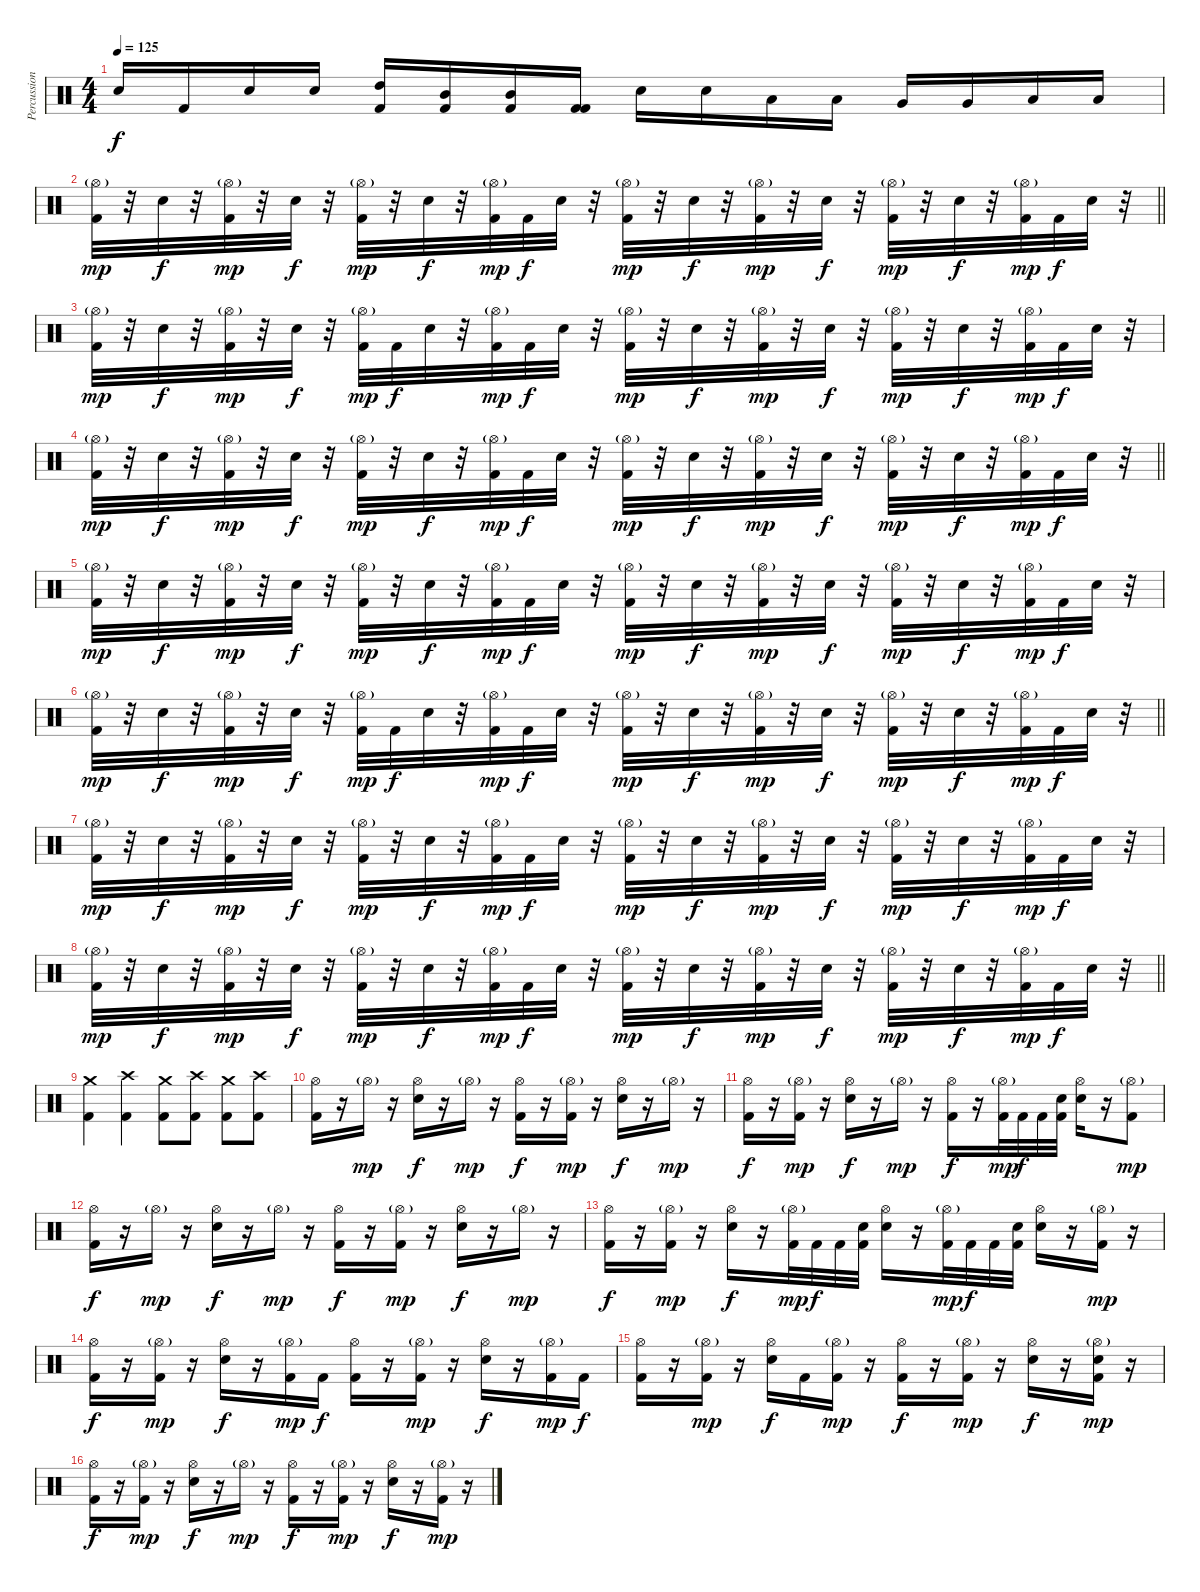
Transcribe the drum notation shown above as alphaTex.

\track ("Percussion" "Percussion") {instrument percussion}
\staff {score}
\articulation defaults
\ts (4 4)
\tempo 125
\clef neutral
\ks c "Electric Snare (hit)".16{dy f} "Kick (hit) 2".16 "Electric Snare (hit)".16 "Electric Snare (hit)".16
("High Tom (hit)" "Kick (hit) 2").16 ("Mid Tom (hit)" "Kick (hit) 2").16 ("Mid Tom (hit)" "Kick (hit) 2").16 ("Kick (hit) 2" "Kick (hit) 2").16 "Electric Snare (hit)".16 "Electric Snare (hit)".16 "Low Tom (hit)".16 "Low Tom (hit)".16 "Very Low Tom (hit)".16 "Very Low Tom (hit)".16 "Low Floor Tom (hit)".16 "Low Floor Tom (hit)".16 |
\barLineRight lightlight
("Hi-Hat (open)"{g} "Kick (hit) 2").32{dy mp} r.32 "Electric Snare (hit)".32{dy f} r.32 ("Hi-Hat (open)"{g} "Kick (hit) 2").32{dy mp} r.32 "Electric Snare (hit)".32{dy f} r.32 ("Hi-Hat (open)"{g} "Kick (hit) 2").32{dy mp} r.32 "Electric Snare (hit)".32{dy f} r.32 ("Hi-Hat (open)"{g} "Kick (hit) 2").32{dy mp} "Kick (hit) 2".32{dy f} "Electric Snare (hit)".32 r.32 ("Hi-Hat (open)"{g} "Kick (hit) 2").32{dy mp} r.32 "Electric Snare (hit)".32{dy f} r.32 ("Hi-Hat (open)"{g} "Kick (hit) 2").32{dy mp} r.32 "Electric Snare (hit)".32{dy f} r.32 ("Hi-Hat (open)"{g} "Kick (hit) 2").32{dy mp} r.32 "Electric Snare (hit)".32{dy f} r.32 ("Hi-Hat (open)"{g} "Kick (hit) 2").32{dy mp} "Kick (hit) 2".32{dy f} "Electric Snare (hit)".32 r.32 |
("Hi-Hat (open)"{g} "Kick (hit) 2").32{dy mp} r.32 "Electric Snare (hit)".32{dy f} r.32 ("Hi-Hat (open)"{g} "Kick (hit) 2").32{dy mp} r.32 "Electric Snare (hit)".32{dy f} r.32 ("Hi-Hat (open)"{g} "Kick (hit) 2").32{dy mp} "Kick (hit) 2".32{dy f} "Electric Snare (hit)".32 r.32 ("Hi-Hat (open)"{g} "Kick (hit) 2").32{dy mp} "Kick (hit) 2".32{dy f} "Electric Snare (hit)".32 r.32 ("Hi-Hat (open)"{g} "Kick (hit) 2").32{dy mp} r.32 "Electric Snare (hit)".32{dy f} r.32 ("Hi-Hat (open)"{g} "Kick (hit) 2").32{dy mp} r.32 "Electric Snare (hit)".32{dy f} r.32 ("Hi-Hat (open)"{g} "Kick (hit) 2").32{dy mp} r.32 "Electric Snare (hit)".32{dy f} r.32 ("Hi-Hat (open)"{g} "Kick (hit) 2").32{dy mp} "Kick (hit) 2".32{dy f} "Electric Snare (hit)".32 r.32 |
\barLineRight lightlight
("Hi-Hat (open)"{g} "Kick (hit) 2").32{dy mp} r.32 "Electric Snare (hit)".32{dy f} r.32 ("Hi-Hat (open)"{g} "Kick (hit) 2").32{dy mp} r.32 "Electric Snare (hit)".32{dy f} r.32 ("Hi-Hat (open)"{g} "Kick (hit) 2").32{dy mp} r.32 "Electric Snare (hit)".32{dy f} r.32 ("Hi-Hat (open)"{g} "Kick (hit) 2").32{dy mp} "Kick (hit) 2".32{dy f} "Electric Snare (hit)".32 r.32 ("Hi-Hat (open)"{g} "Kick (hit) 2").32{dy mp} r.32 "Electric Snare (hit)".32{dy f} r.32 ("Hi-Hat (open)"{g} "Kick (hit) 2").32{dy mp} r.32 "Electric Snare (hit)".32{dy f} r.32 ("Hi-Hat (open)"{g} "Kick (hit) 2").32{dy mp} r.32 "Electric Snare (hit)".32{dy f} r.32 ("Hi-Hat (open)"{g} "Kick (hit) 2").32{dy mp} "Kick (hit) 2".32{dy f} "Electric Snare (hit)".32 r.32 |
("Hi-Hat (open)"{g} "Kick (hit) 2").32{dy mp} r.32 "Electric Snare (hit)".32{dy f} r.32 ("Hi-Hat (open)"{g} "Kick (hit) 2").32{dy mp} r.32 "Electric Snare (hit)".32{dy f} r.32 ("Hi-Hat (open)"{g} "Kick (hit) 2").32{dy mp} r.32 "Electric Snare (hit)".32{dy f} r.32 ("Hi-Hat (open)"{g} "Kick (hit) 2").32{dy mp} "Kick (hit) 2".32{dy f} "Electric Snare (hit)".32 r.32 ("Hi-Hat (open)"{g} "Kick (hit) 2").32{dy mp} r.32 "Electric Snare (hit)".32{dy f} r.32 ("Hi-Hat (open)"{g} "Kick (hit) 2").32{dy mp} r.32 "Electric Snare (hit)".32{dy f} r.32 ("Hi-Hat (open)"{g} "Kick (hit) 2").32{dy mp} r.32 "Electric Snare (hit)".32{dy f} r.32 ("Hi-Hat (open)"{g} "Kick (hit) 2").32{dy mp} "Kick (hit) 2".32{dy f} "Electric Snare (hit)".32 r.32 |
\barLineRight lightlight
("Hi-Hat (open)"{g} "Kick (hit) 2").32{dy mp} r.32 "Electric Snare (hit)".32{dy f} r.32 ("Hi-Hat (open)"{g} "Kick (hit) 2").32{dy mp} r.32 "Electric Snare (hit)".32{dy f} r.32 ("Hi-Hat (open)"{g} "Kick (hit) 2").32{dy mp} "Kick (hit) 2".32{dy f} "Electric Snare (hit)".32 r.32 ("Hi-Hat (open)"{g} "Kick (hit) 2").32{dy mp} "Kick (hit) 2".32{dy f} "Electric Snare (hit)".32 r.32 ("Hi-Hat (open)"{g} "Kick (hit) 2").32{dy mp} r.32 "Electric Snare (hit)".32{dy f} r.32 ("Hi-Hat (open)"{g} "Kick (hit) 2").32{dy mp} r.32 "Electric Snare (hit)".32{dy f} r.32 ("Hi-Hat (open)"{g} "Kick (hit) 2").32{dy mp} r.32 "Electric Snare (hit)".32{dy f} r.32 ("Hi-Hat (open)"{g} "Kick (hit) 2").32{dy mp} "Kick (hit) 2".32{dy f} "Electric Snare (hit)".32 r.32 |
("Hi-Hat (open)"{g} "Kick (hit) 2").32{dy mp} r.32 "Electric Snare (hit)".32{dy f} r.32 ("Hi-Hat (open)"{g} "Kick (hit) 2").32{dy mp} r.32 "Electric Snare (hit)".32{dy f} r.32 ("Hi-Hat (open)"{g} "Kick (hit) 2").32{dy mp} r.32 "Electric Snare (hit)".32{dy f} r.32 ("Hi-Hat (open)"{g} "Kick (hit) 2").32{dy mp} "Kick (hit) 2".32{dy f} "Electric Snare (hit)".32 r.32 ("Hi-Hat (open)"{g} "Kick (hit) 2").32{dy mp} r.32 "Electric Snare (hit)".32{dy f} r.32 ("Hi-Hat (open)"{g} "Kick (hit) 2").32{dy mp} r.32 "Electric Snare (hit)".32{dy f} r.32 ("Hi-Hat (open)"{g} "Kick (hit) 2").32{dy mp} r.32 "Electric Snare (hit)".32{dy f} r.32 ("Hi-Hat (open)"{g} "Kick (hit) 2").32{dy mp} "Kick (hit) 2".32{dy f} "Electric Snare (hit)".32 r.32 |
\barLineRight lightlight
("Hi-Hat (open)"{g} "Kick (hit) 2").32{dy mp} r.32 "Electric Snare (hit)".32{dy f} r.32 ("Hi-Hat (open)"{g} "Kick (hit) 2").32{dy mp} r.32 "Electric Snare (hit)".32{dy f} r.32 ("Hi-Hat (open)"{g} "Kick (hit) 2").32{dy mp} r.32 "Electric Snare (hit)".32{dy f} r.32 ("Hi-Hat (open)"{g} "Kick (hit) 2").32{dy mp} "Kick (hit) 2".32{dy f} "Electric Snare (hit)".32 r.32 ("Hi-Hat (open)"{g} "Kick (hit) 2").32{dy mp} r.32 "Electric Snare (hit)".32{dy f} r.32 ("Hi-Hat (open)"{g} "Kick (hit) 2").32{dy mp} r.32 "Electric Snare (hit)".32{dy f} r.32 ("Hi-Hat (open)"{g} "Kick (hit) 2").32{dy mp} r.32 "Electric Snare (hit)".32{dy f} r.32 ("Hi-Hat (open)"{g} "Kick (hit) 2").32{dy mp} "Kick (hit) 2".32{dy f} "Electric Snare (hit)".32 r.32 |
("Kick (hit) 2" "Crash medium (hit)").4 ("Kick (hit) 2" "Crash high (hit)").4 ("Kick (hit) 2" "Crash medium (hit)").8 ("Kick (hit) 2" "Crash high (hit)").8 ("Kick (hit) 2" "Crash medium (hit)").8 ("Kick (hit) 2" "Crash high (hit)").8 |
("Hi-Hat (open)" "Kick (hit) 2").16 r.16 "Hi-Hat (open)"{g}.16{dy mp} r.16 ("Hi-Hat (open)" "Electric Snare (hit)").16{dy f} r.16 "Hi-Hat (open)"{g}.16{dy mp} r.16 ("Hi-Hat (open)" "Kick (hit) 2").16{dy f} r.16 ("Hi-Hat (open)"{g} "Kick (hit) 2").16{dy mp} r.16 ("Hi-Hat (open)" "Electric Snare (hit)").16{dy f} r.16 "Hi-Hat (open)"{g}.16{dy mp} r.16 |
("Hi-Hat (open)" "Kick (hit) 2").16{dy f} r.16 ("Hi-Hat (open)"{g} "Kick (hit) 2").16{dy mp} r.16 ("Hi-Hat (open)" "Electric Snare (hit)").16{dy f} r.16 "Hi-Hat (open)"{g}.16{dy mp} r.16 ("Hi-Hat (open)" "Kick (hit) 2").16{dy f} r.16 ("Hi-Hat (open)"{g} "Kick (hit) 2").32{dy mp} "Kick (hit) 2".32{dy f} "Kick (hit) 2".32 ("Snare (hit)" "Kick (hit) 2").32 ("Hi-Hat (open)" "Electric Snare (hit)").16 r.16 ("Hi-Hat (open)"{g} "Kick (hit) 2").8{dy mp} |
("Hi-Hat (open)" "Kick (hit) 2").16{dy f} r.16 "Hi-Hat (open)"{g}.16{dy mp} r.16 ("Hi-Hat (open)" "Electric Snare (hit)").16{dy f} r.16 "Hi-Hat (open)"{g}.16{dy mp} r.16 ("Hi-Hat (open)" "Kick (hit) 2").16{dy f} r.16 ("Hi-Hat (open)"{g} "Kick (hit) 2").16{dy mp} r.16 ("Hi-Hat (open)" "Electric Snare (hit)").16{dy f} r.16 "Hi-Hat (open)"{g}.16{dy mp} r.16 |
("Hi-Hat (open)" "Kick (hit) 2").16{dy f} r.16 ("Hi-Hat (open)"{g} "Kick (hit) 2").16{dy mp} r.16 ("Hi-Hat (open)" "Electric Snare (hit)").16{dy f} r.16 ("Hi-Hat (open)"{g} "Kick (hit) 2").32{dy mp} "Kick (hit) 2".32{dy f} "Kick (hit) 2".32 ("Snare (hit)" "Kick (hit) 2").32 ("Hi-Hat (open)" "Electric Snare (hit)").16 r.16 ("Hi-Hat (open)"{g} "Kick (hit) 2").32{dy mp} "Kick (hit) 2".32{dy f} "Kick (hit) 2".32 ("Snare (hit)" "Kick (hit) 2").32 ("Hi-Hat (open)" "Electric Snare (hit)").16 r.16 ("Kick (hit) 2" "Hi-Hat (open)"{g}).16{dy mp} r.16 |
("Hi-Hat (open)" "Kick (hit) 2").16{dy f} r.16 ("Hi-Hat (open)"{g} "Kick (hit) 2").16{dy mp} r.16 ("Hi-Hat (open)" "Electric Snare (hit)").16{dy f} r.16 ("Hi-Hat (open)"{g} "Kick (hit) 2").16{dy mp} "Kick (hit) 2".16{dy f} ("Hi-Hat (open)" "Kick (hit) 2").16 r.16 ("Hi-Hat (open)"{g} "Kick (hit) 2").16{dy mp} r.16 ("Hi-Hat (open)" "Electric Snare (hit)").16{dy f} r.16 ("Hi-Hat (open)"{g} "Kick (hit) 2").16{dy mp} "Kick (hit) 2".16{dy f} |
("Hi-Hat (open)" "Kick (hit) 2").16 r.16 ("Hi-Hat (open)"{g} "Kick (hit) 2").16{dy mp} r.16 ("Hi-Hat (open)" "Electric Snare (hit)").16{dy f} "Kick (hit) 2".16 ("Hi-Hat (open)"{g} "Kick (hit) 2").16{dy mp} r.16 ("Hi-Hat (open)" "Kick (hit) 2").16{dy f} r.16 ("Hi-Hat (open)"{g} "Kick (hit) 2").16{dy mp} r.16 ("Hi-Hat (open)" "Electric Snare (hit)").16{dy f} r.16 ("Hi-Hat (open)"{g} "Electric Snare (hit)" "Kick (hit) 2").16{dy mp} r.16 |
("Hi-Hat (open)" "Kick (hit) 2").16{dy f} r.16 ("Hi-Hat (open)"{g} "Kick (hit) 2").16{dy mp} r.16 ("Hi-Hat (open)" "Electric Snare (hit)").16{dy f} r.16 "Hi-Hat (open)"{g}.16{dy mp} r.16 ("Hi-Hat (open)" "Kick (hit) 2").16{dy f} r.16 ("Hi-Hat (open)"{g} "Kick (hit) 2").16{dy mp} r.16 ("Hi-Hat (open)" "Electric Snare (hit)").16{dy f} r.16 ("Hi-Hat (open)"{g} "Kick (hit) 2").16{dy mp} r.16
